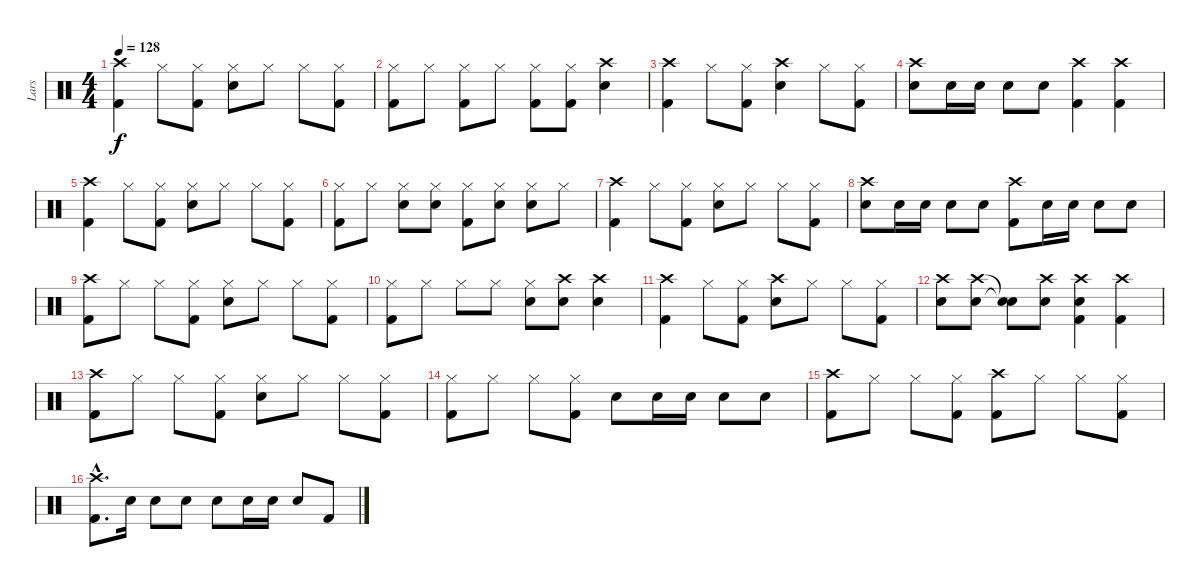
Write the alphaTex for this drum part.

\track ("Lars" "Lars") {instrument percussion}
\staff {score}
\articulation defaults
\ts (4 4)
\tempo 128
\clef neutral
\ks c
("Crash high (hit)" "Kick (hit) 2").4{dy f} "Hi-Hat (closed)".8 ("Kick (hit) 2" "Hi-Hat (closed)").8 ("Hi-Hat (closed)" "Electric Snare (hit)").8 "Hi-Hat (closed)".8 "Hi-Hat (closed)".8 ("Kick (hit) 2" "Hi-Hat (closed)").8 |
("Hi-Hat (closed)" "Kick (hit) 2").8 "Hi-Hat (closed)".8 ("Hi-Hat (closed)" "Kick (hit) 2").8 "Hi-Hat (closed)".8 ("Hi-Hat (closed)" "Kick (hit) 2").8 ("Hi-Hat (closed)" "Kick (hit) 2").8 ("Crash high (hit)" "Electric Snare (hit)").4 |
("Crash high (hit)" "Kick (hit) 2").4 "Hi-Hat (closed)".8 ("Hi-Hat (closed)" "Kick (hit) 2").8 ("Crash high (hit)" "Electric Snare (hit)").4 "Hi-Hat (closed)".8 ("Hi-Hat (closed)" "Kick (hit) 2").8 |
("Crash high (hit)" "Snare (hit) 2").8 "Electric Snare (hit)".16 "Electric Snare (hit)".16 "Electric Snare (hit)".8 "Electric Snare (hit)".8 ("Crash high (hit)" "Kick (hit) 2").4 ("Crash high (hit)" "Kick (hit) 2").4 |
("Crash high (hit)" "Kick (hit) 2").4 "Hi-Hat (closed)".8 ("Hi-Hat (closed)" "Kick (hit) 2").8 ("Hi-Hat (closed)" "Electric Snare (hit)").8 "Hi-Hat (closed)".8 "Hi-Hat (closed)".8 ("Hi-Hat (closed)" "Kick (hit) 2").8 |
("Hi-Hat (closed)" "Kick (hit) 2").8 "Hi-Hat (closed)".8 ("Hi-Hat (closed)" "Electric Snare (hit)").8 ("Hi-Hat (closed)" "Electric Snare (hit)").8 ("Hi-Hat (closed)" "Kick (hit) 2").8 ("Hi-Hat (closed)" "Electric Snare (hit)").8 ("Hi-Hat (closed)" "Electric Snare (hit)").8 "Hi-Hat (closed)".8 |
("Crash high (hit)" "Kick (hit) 2").4 "Hi-Hat (closed)".8 ("Kick (hit) 2" "Hi-Hat (closed)").8 ("Hi-Hat (closed)" "Electric Snare (hit)").8 "Hi-Hat (closed)".8 "Hi-Hat (closed)".8 ("Kick (hit) 2" "Hi-Hat (closed)").8 |
("Crash high (hit)" "Electric Snare (hit)").8 "Electric Snare (hit)".16 "Electric Snare (hit)".16 "Electric Snare (hit)".8 "Electric Snare (hit)".8 ("Crash high (hit)" "Kick (hit) 2").8 "Electric Snare (hit)".16 "Electric Snare (hit)".16 "Electric Snare (hit)".8 "Electric Snare (hit)".8 |
("Crash high (hit)" "Kick (hit) 2").8 "Hi-Hat (closed)".8 "Hi-Hat (closed)".8 ("Hi-Hat (closed)" "Kick (hit) 2").8 ("Hi-Hat (closed)" "Electric Snare (hit)").8 "Hi-Hat (closed)".8 "Hi-Hat (closed)".8 ("Hi-Hat (closed)" "Kick (hit) 2").8 |
("Hi-Hat (closed)" "Kick (hit) 2").8 "Hi-Hat (closed)".8 "Hi-Hat (closed)".8 "Hi-Hat (closed)".8 ("Hi-Hat (closed)" "Electric Snare (hit)").8 ("Crash high (hit)" "Electric Snare (hit)").8 ("Crash high (hit)" "Electric Snare (hit)").4 |
("Crash high (hit)" "Kick (hit) 2").4 "Hi-Hat (closed)".8 ("Hi-Hat (closed)" "Kick (hit) 2").8 ("Crash high (hit)" "Electric Snare (hit)").8 "Hi-Hat (closed)".8 "Hi-Hat (closed)".8 ("Hi-Hat (closed)" "Kick (hit) 2").8 |
("Crash high (hit)" "Electric Snare (hit)").8 ("Crash high (hit)" "Electric Snare (hit)").8 ("Snare (hit)"{t} "Snare (hit)"{t}).8 ("Crash high (hit)" "Electric Snare (hit)").8 ("Crash high (hit)" "Electric Snare (hit)" "Kick (hit) 2").4 ("Crash high (hit)" "Kick (hit) 2").4 |
("Crash high (hit)" "Kick (hit) 2").8 "Hi-Hat (closed)".8 "Hi-Hat (closed)".8 ("Hi-Hat (closed)" "Kick (hit) 2").8 ("Hi-Hat (closed)" "Electric Snare (hit)").8 "Hi-Hat (closed)".8 "Hi-Hat (closed)".8 ("Hi-Hat (closed)" "Kick (hit) 2").8 |
("Hi-Hat (closed)" "Kick (hit) 2").8 "Hi-Hat (closed)".8 "Hi-Hat (closed)".8 ("Hi-Hat (closed)" "Kick (hit) 2").8 "Electric Snare (hit)".8 "Electric Snare (hit)".16 "Electric Snare (hit)".16 "Electric Snare (hit)".8 "Electric Snare (hit)".8 |
("Crash high (hit)" "Kick (hit) 2").8 "Hi-Hat (closed)".8 "Hi-Hat (closed)".8 ("Hi-Hat (closed)" "Kick (hit) 2").8 ("Crash high (hit)" "Kick (hit) 2").8 "Hi-Hat (closed)".8 "Hi-Hat (closed)".8 ("Hi-Hat (closed)" "Kick (hit) 2").8 |
("Crash high (hit)"{hac} "Kick (hit) 2"{hac}).8{d} "Electric Snare (hit)".16 "Electric Snare (hit)".8 "Electric Snare (hit)".8 "Electric Snare (hit)".8 "Electric Snare (hit)".16 "Electric Snare (hit)".16 "Electric Snare (hit)".8 "Kick (hit) 2".8
